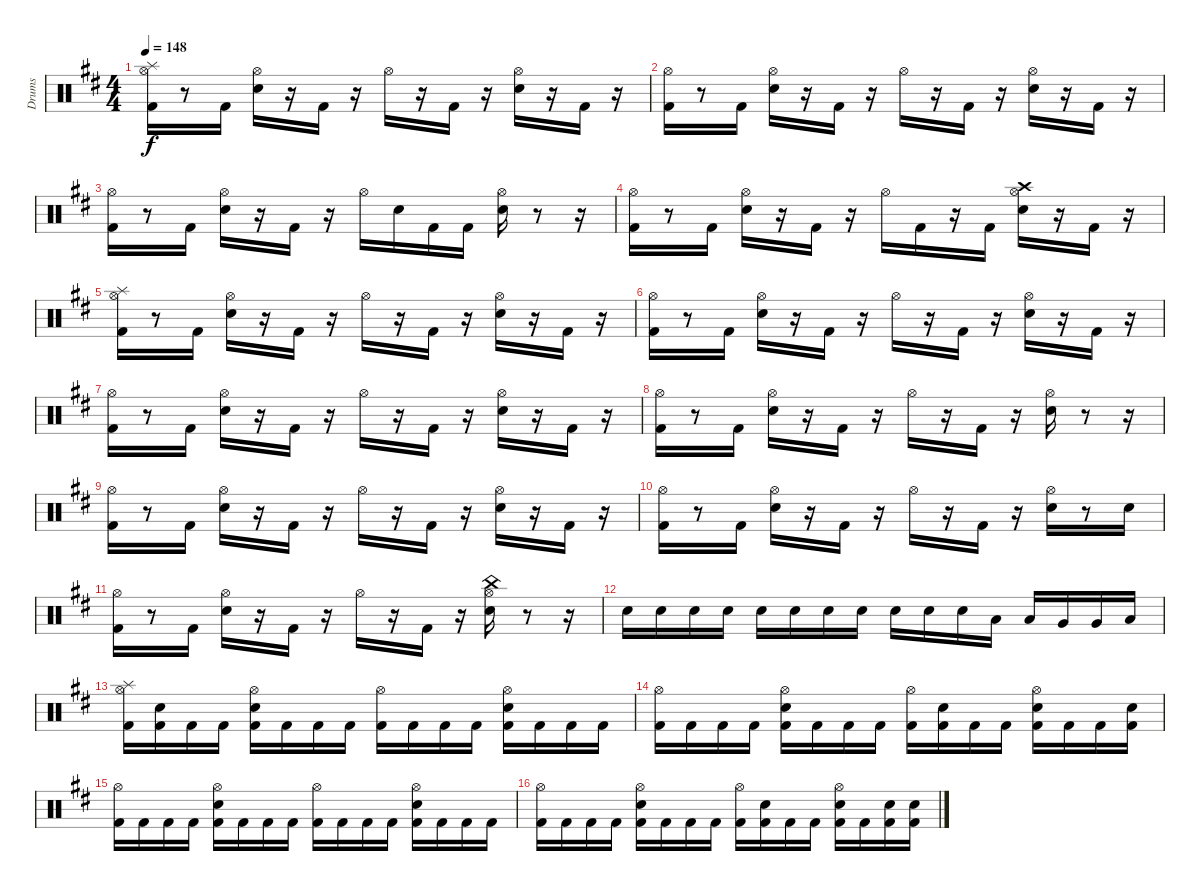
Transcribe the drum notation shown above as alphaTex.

\track ("Drums" "Drums") {instrument percussion}
\staff {score}
\articulation defaults
\ts (4 4)
\tempo 148
\clef neutral
\ks d
("Hi-Hat (open)" "Splash (hit)" "Kick (hit) 2").16{dy f} r.8 "Kick (hit) 2".16 ("Hi-Hat (open)" "Snare (hit) 2").16 r.16 "Kick (hit) 2".16 r.16 "Hi-Hat (open)".16 r.16 "Kick (hit) 2".16 r.16 ("Hi-Hat (open)" "Snare (hit) 2").16 r.16 "Kick (hit) 2".16 r.16 |
("Hi-Hat (open)" "Kick (hit) 2").16 r.8 "Kick (hit) 2".16 ("Hi-Hat (open)" "Snare (hit) 2").16 r.16 "Kick (hit) 2".16 r.16 "Hi-Hat (open)".16 r.16 "Kick (hit) 2".16 r.16 ("Hi-Hat (open)" "Snare (hit) 2").16 r.16 "Kick (hit) 2".16 r.16 |
("Hi-Hat (open)" "Kick (hit) 2").16 r.8 "Kick (hit) 2".16 ("Hi-Hat (open)" "Snare (hit) 2").16 r.16 "Kick (hit) 2".16 r.16 "Hi-Hat (open)".16 "Snare (hit) 2".16 "Kick (hit) 2".16 "Kick (hit) 2".16 ("Hi-Hat (open)" "Snare (hit) 2").16 r.8 r.16 |
("Hi-Hat (open)" "Kick (hit) 2").16 r.8 "Kick (hit) 2".16 ("Hi-Hat (open)" "Snare (hit) 2").16 r.16 "Kick (hit) 2".16 r.16 "Hi-Hat (open)".16 "Kick (hit) 2".16 r.16 "Kick (hit) 2".16 ("Hi-Hat (open)" "Crash high (hit)" "Snare (hit) 2").16 r.16 "Kick (hit) 2".16 r.16 |
("Hi-Hat (open)" "Splash (hit)" "Kick (hit) 2").16 r.8 "Kick (hit) 2".16 ("Hi-Hat (open)" "Snare (hit) 2").16 r.16 "Kick (hit) 2".16 r.16 "Hi-Hat (open)".16 r.16 "Kick (hit) 2".16 r.16 ("Hi-Hat (open)" "Snare (hit) 2").16 r.16 "Kick (hit) 2".16 r.16 |
("Hi-Hat (open)" "Kick (hit) 2").16 r.8 "Kick (hit) 2".16 ("Hi-Hat (open)" "Snare (hit) 2").16 r.16 "Kick (hit) 2".16 r.16 "Hi-Hat (open)".16 r.16 "Kick (hit) 2".16 r.16 ("Hi-Hat (open)" "Snare (hit) 2").16 r.16 "Kick (hit) 2".16 r.16 |
("Hi-Hat (open)" "Kick (hit) 2").16 r.8 "Kick (hit) 2".16 ("Hi-Hat (open)" "Snare (hit) 2").16 r.16 "Kick (hit) 2".16 r.16 "Hi-Hat (open)".16 r.16 "Kick (hit) 2".16 r.16 ("Hi-Hat (open)" "Snare (hit) 2").16 r.16 "Kick (hit) 2".16 r.16 |
("Hi-Hat (open)" "Kick (hit) 2").16 r.8 "Kick (hit) 2".16 ("Hi-Hat (open)" "Snare (hit) 2").16 r.16 "Kick (hit) 2".16 r.16 "Hi-Hat (open)".16 r.16 "Kick (hit) 2".16 r.16 ("Hi-Hat (open)" "Snare (hit) 2").16 r.8 r.16 |
("Hi-Hat (open)" "Kick (hit) 2").16 r.8 "Kick (hit) 2".16 ("Hi-Hat (open)" "Snare (hit) 2").16 r.16 "Kick (hit) 2".16 r.16 "Hi-Hat (open)".16 r.16 "Kick (hit) 2".16 r.16 ("Hi-Hat (open)" "Snare (hit) 2").16 r.16 "Kick (hit) 2".16 r.16 |
("Hi-Hat (open)" "Kick (hit) 2").16 r.8 "Kick (hit) 2".16 ("Hi-Hat (open)" "Snare (hit) 2").16 r.16 "Kick (hit) 2".16 r.16 "Hi-Hat (open)".16 r.16 "Kick (hit) 2".16 r.16 ("Hi-Hat (open)" "Snare (hit) 2").16 r.8 "Snare (hit) 2".16 |
("Hi-Hat (open)" "Kick (hit) 2").16 r.8 "Kick (hit) 2".16 ("Hi-Hat (open)" "Snare (hit) 2").16 r.16 "Kick (hit) 2".16 r.16 "Hi-Hat (open)".16 r.16 "Kick (hit) 2".16 r.16 ("Hi-Hat (open)" "China (hit)" "Snare (hit) 2").16 r.8 r.16 |
"Snare (hit) 2".16 "Snare (hit) 2".16 "Snare (hit) 2".16 "Snare (hit) 2".16 "Snare (hit) 2".16 "Snare (hit) 2".16 "Snare (hit) 2".16 "Snare (hit) 2".16 "Snare (hit) 2".16 "Snare (hit) 2".16 "Snare (hit) 2".16 "Low Tom (hit)".16 "Low Tom (hit)".16 "Very Low Tom (hit)".16 "Very Low Tom (hit)".16 "Low Floor Tom (hit)".16 |
("Hi-Hat (open)" "Splash (hit)" "Kick (hit) 2").16 ("Snare (hit)" "Kick (hit) 2").16 "Kick (hit) 2".16 "Kick (hit) 2".16 ("Hi-Hat (open)" "Kick (hit) 2" "Snare (hit) 2").16 "Kick (hit) 2".16 "Kick (hit) 2".16 "Kick (hit) 2".16 ("Hi-Hat (open)" "Kick (hit) 2").16 "Kick (hit) 2".16 "Kick (hit) 2".16 "Kick (hit) 2".16 ("Hi-Hat (open)" "Kick (hit) 2" "Snare (hit) 2").16 "Kick (hit) 2".16 "Kick (hit) 2".16 "Kick (hit) 2".16 |
("Hi-Hat (open)" "Kick (hit) 2").16 "Kick (hit) 2".16 "Kick (hit) 2".16 "Kick (hit) 2".16 ("Hi-Hat (open)" "Kick (hit) 2" "Snare (hit) 2").16 "Kick (hit) 2".16 "Kick (hit) 2".16 "Kick (hit) 2".16 ("Hi-Hat (open)" "Kick (hit) 2").16 ("Kick (hit) 2" "Snare (hit) 2").16 "Kick (hit) 2".16 "Kick (hit) 2".16 ("Hi-Hat (open)" "Kick (hit) 2" "Snare (hit) 2").16 "Kick (hit) 2".16 "Kick (hit) 2".16 ("Kick (hit) 2" "Snare (hit) 2").16 |
("Hi-Hat (open)" "Kick (hit) 2").16 "Kick (hit) 2".16 "Kick (hit) 2".16 "Kick (hit) 2".16 ("Hi-Hat (open)" "Kick (hit) 2" "Snare (hit) 2").16 "Kick (hit) 2".16 "Kick (hit) 2".16 "Kick (hit) 2".16 ("Hi-Hat (open)" "Kick (hit) 2").16 "Kick (hit) 2".16 "Kick (hit) 2".16 "Kick (hit) 2".16 ("Hi-Hat (open)" "Kick (hit) 2" "Snare (hit) 2").16 "Kick (hit) 2".16 "Kick (hit) 2".16 "Kick (hit) 2".16 |
("Hi-Hat (open)" "Kick (hit) 2").16 "Kick (hit) 2".16 "Kick (hit) 2".16 "Kick (hit) 2".16 ("Hi-Hat (open)" "Kick (hit) 2" "Snare (hit) 2").16 "Kick (hit) 2".16 "Kick (hit) 2".16 "Kick (hit) 2".16 ("Hi-Hat (open)" "Kick (hit) 2").16 ("Kick (hit) 2" "Snare (hit) 2").16 "Kick (hit) 2".16 "Kick (hit) 2".16 ("Hi-Hat (open)" "Kick (hit) 2" "Snare (hit) 2").16 "Kick (hit) 2".16 ("Kick (hit) 2" "Snare (hit) 2").16 ("Kick (hit) 2" "Snare (hit) 2").16
